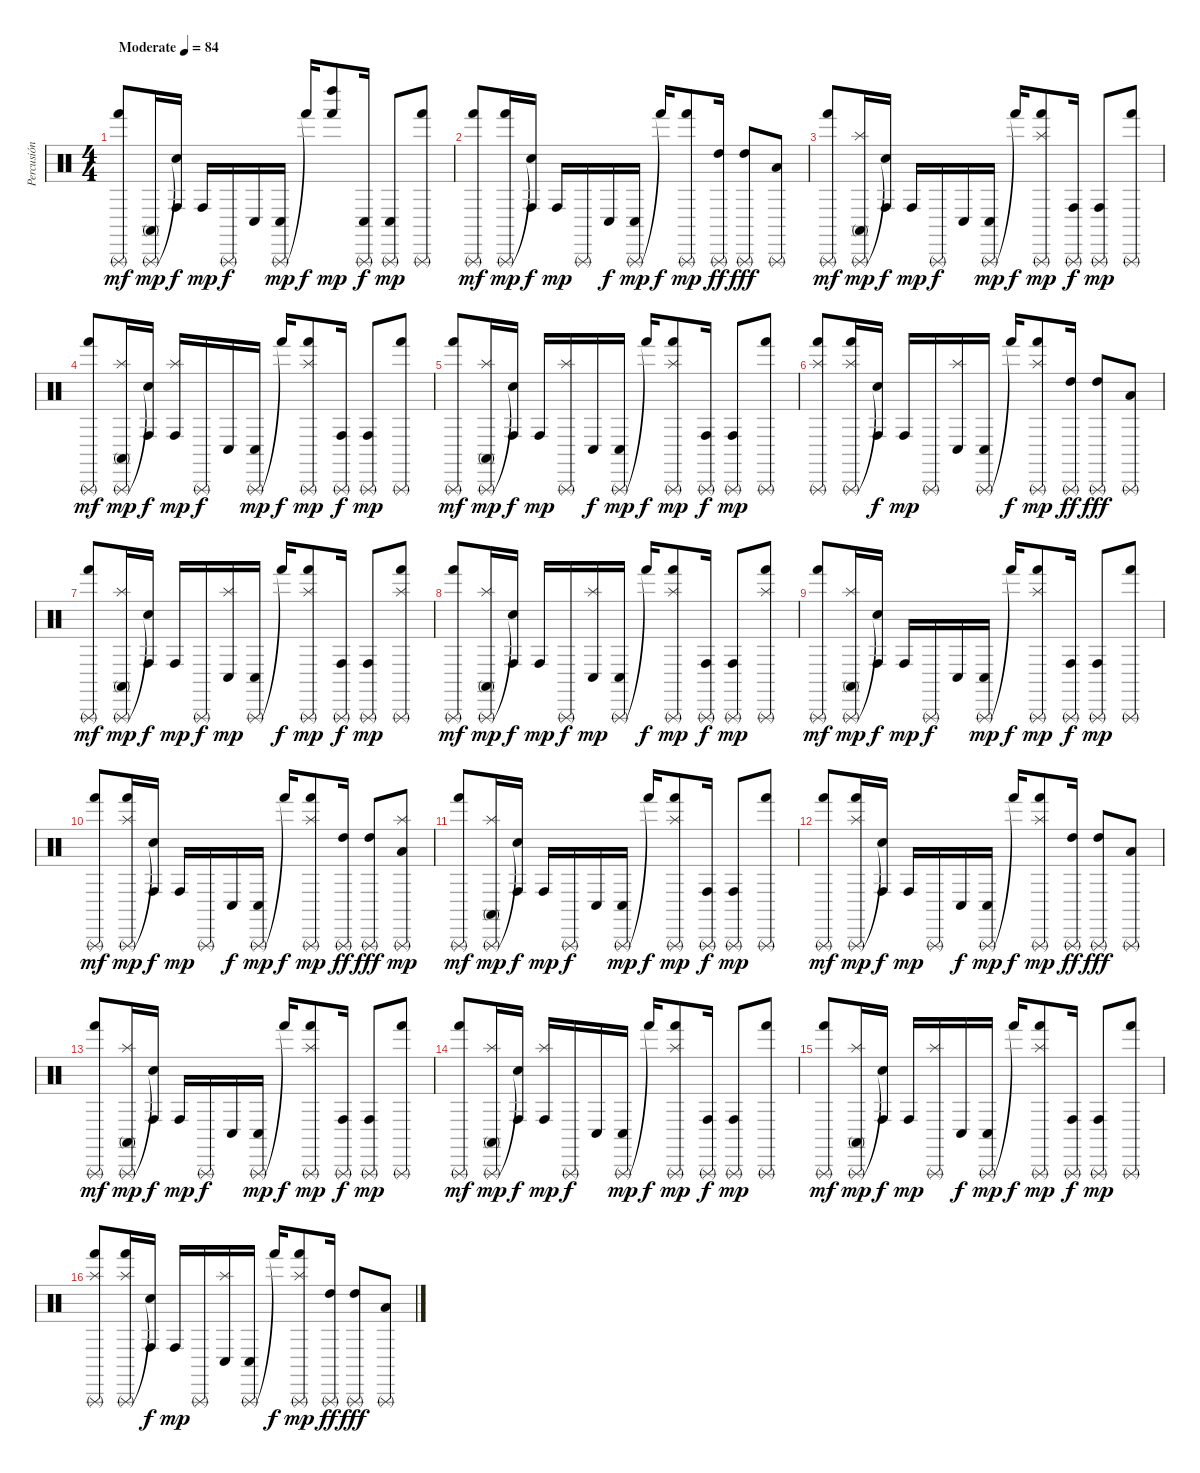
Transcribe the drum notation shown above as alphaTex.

\track ("Percusión" "Percusión") {instrument percussion}
\staff {score}
\articulation defaults
\ts (4 4)
\tempo (84 "Moderate")
\clef neutral
\ks c
("Triangle (rnute)" "Hand (hit)").8{dy mf} ("Triangle (rnute)" "Conga high (mute)").16{dy mp} ("Snare (hit)"{t} "Conga high (hit)").16{dy f} "Conga high (hit)".16{dy mp} "Triangle (rnute)".16{dy f} "Conga low (hit)".16 ("Triangle (rnute)" "Conga low (hit)").16{dy mp} "Hand (hit)"{t}.16{dy f} ("Left Maraca (hit)" "Hand (hit)").8{dy mp} ("Triangle (rnute)" "Conga low (hit)").16{dy f} ("Triangle (rnute)" "Conga low (hit)").8{dy mp} ("Triangle (rnute)" "Hand (hit)").8 |
("Triangle (rnute)" "Hand (hit)").8{dy mf} ("Triangle (rnute)" "Hand (hit)").16{dy mp} ("Snare (hit)"{t} "Conga high (hit)").16{dy f} "Conga high (hit)".16{dy mp} "Triangle (rnute)".16 "Conga low (hit)".16{dy f} ("Triangle (rnute)" "Conga low (hit)").16{dy mp} "Hand (hit)"{t}.16{dy f} ("Triangle (rnute)" "Hand (hit)").8{dy mp} ("Triangle (rnute)" "High Tom (hit)").16{dy ff} ("Triangle (rnute)" "High Tom (hit)").8{dy fff} ("Triangle (rnute)" "Low Tom (hit)").8 |
("Triangle (rnute)" "Hand (hit)").8{dy mf} ("Triangle (rnute)" "Conga high (mute)" "Splash (hit)").16{dy mp} ("Snare (hit)"{t} "Conga high (hit)").16{dy f} "Conga high (hit)".16{dy mp} "Triangle (rnute)".16{dy f} "Conga low (hit)".16 ("Triangle (rnute)" "Conga low (hit)").16{dy mp} "Hand (hit)"{t}.16{dy f} ("Triangle (rnute)" "Hand (hit)" "Splash (hit)").8{dy mp} ("Triangle (rnute)" "Conga high (hit)").16{dy f} ("Triangle (rnute)" "Conga high (hit)").8{dy mp} ("Triangle (rnute)" "Hand (hit)").8 |
("Triangle (rnute)" "Hand (hit)").8{dy mf} ("Triangle (rnute)" "Conga high (mute)" "Splash (hit)").16{dy mp} ("Snare (hit)"{t} "Conga high (hit)").16{dy f} ("Conga high (hit)" "Splash (hit)").16{dy mp} "Triangle (rnute)".16{dy f} "Conga low (hit)".16 ("Triangle (rnute)" "Conga low (hit)").16{dy mp} "Hand (hit)"{t}.16{dy f} ("Triangle (rnute)" "Hand (hit)" "Splash (hit)").8{dy mp} ("Triangle (rnute)" "Conga high (hit)").16{dy f} ("Triangle (rnute)" "Conga high (hit)").8{dy mp} ("Triangle (rnute)" "Hand (hit)").8 |
("Triangle (rnute)" "Hand (hit)").8{dy mf} ("Triangle (rnute)" "Conga high (mute)" "Splash (hit)").16{dy mp} ("Snare (hit)"{t} "Conga high (hit)").16{dy f} "Conga high (hit)".16{dy mp} ("Triangle (rnute)" "Splash (hit)").16 "Conga low (hit)".16{dy f} ("Triangle (rnute)" "Conga low (hit)").16{dy mp} "Hand (hit)"{t}.16{dy f} ("Triangle (rnute)" "Hand (hit)" "Splash (hit)").8{dy mp} ("Triangle (rnute)" "Conga high (hit)").16{dy f} ("Triangle (rnute)" "Conga high (hit)").8{dy mp} ("Triangle (rnute)" "Hand (hit)").8 |
("Triangle (rnute)" "Hand (hit)" "Splash (hit)").8 ("Triangle (rnute)" "Hand (hit)" "Splash (hit)").16 ("Snare (hit)"{t} "Conga high (hit)").16{dy f} "Conga high (hit)".16{dy mp} "Triangle (rnute)".16 ("Conga low (hit)" "Splash (hit)").16 ("Triangle (rnute)" "Conga low (hit)").16 "Hand (hit)"{t}.16{dy f} ("Triangle (rnute)" "Hand (hit)" "Splash (hit)").8{dy mp} ("Triangle (rnute)" "High Tom (hit)").16{dy ff} ("Triangle (rnute)" "High Tom (hit)").8{dy fff} ("Triangle (rnute)" "Low Tom (hit)").8 |
("Triangle (rnute)" "Hand (hit)").8{dy mf} ("Triangle (rnute)" "Conga high (mute)" "Splash (hit)").16{dy mp} ("Snare (hit)"{t} "Conga high (hit)").16{dy f} "Conga high (hit)".16{dy mp} "Triangle (rnute)".16{dy f} ("Conga low (hit)" "Splash (hit)").16{dy mp} ("Triangle (rnute)" "Conga low (hit)").16 "Hand (hit)"{t}.16{dy f} ("Triangle (rnute)" "Hand (hit)" "Splash (hit)").8{dy mp} ("Triangle (rnute)" "Conga high (hit)").16{dy f} ("Triangle (rnute)" "Conga high (hit)").8{dy mp} ("Triangle (rnute)" "Hand (hit)" "Splash (hit)").8 |
("Triangle (rnute)" "Hand (hit)").8{dy mf} ("Triangle (rnute)" "Conga high (mute)" "Splash (hit)").16{dy mp} ("Snare (hit)"{t} "Conga high (hit)").16{dy f} "Conga high (hit)".16{dy mp} "Triangle (rnute)".16{dy f} ("Conga low (hit)" "Splash (hit)").16{dy mp} ("Triangle (rnute)" "Conga low (hit)").16 "Hand (hit)"{t}.16{dy f} ("Triangle (rnute)" "Hand (hit)" "Splash (hit)").8{dy mp} ("Triangle (rnute)" "Conga high (hit)").16{dy f} ("Triangle (rnute)" "Conga high (hit)").8{dy mp} ("Triangle (rnute)" "Hand (hit)" "Splash (hit)").8 |
("Triangle (rnute)" "Hand (hit)").8{dy mf} ("Triangle (rnute)" "Conga high (mute)" "Splash (hit)").16{dy mp} ("Snare (hit)"{t} "Conga high (hit)").16{dy f} "Conga high (hit)".16{dy mp} "Triangle (rnute)".16{dy f} "Conga low (hit)".16 ("Triangle (rnute)" "Conga low (hit)").16{dy mp} "Hand (hit)"{t}.16{dy f} ("Triangle (rnute)" "Hand (hit)" "Splash (hit)").8{dy mp} ("Triangle (rnute)" "Conga high (hit)").16{dy f} ("Triangle (rnute)" "Conga high (hit)").8{dy mp} ("Triangle (rnute)" "Hand (hit)").8 |
("Triangle (rnute)" "Hand (hit)").8{dy mf} ("Triangle (rnute)" "Hand (hit)" "Splash (hit)").16{dy mp} ("Snare (hit)"{t} "Conga high (hit)").16{dy f} "Conga high (hit)".16{dy mp} "Triangle (rnute)".16 "Conga low (hit)".16{dy f} ("Triangle (rnute)" "Conga low (hit)").16{dy mp} "Hand (hit)"{t}.16{dy f} ("Triangle (rnute)" "Hand (hit)" "Splash (hit)").8{dy mp} ("Triangle (rnute)" "High Tom (hit)").16{dy ff} ("Triangle (rnute)" "High Tom (hit)").8{dy fff} ("Triangle (rnute)" "Low Tom (hit)" "Splash (hit)").8{dy mp} |
("Triangle (rnute)" "Hand (hit)").8{dy mf} ("Triangle (rnute)" "Conga high (mute)" "Splash (hit)").16{dy mp} ("Snare (hit)"{t} "Conga high (hit)").16{dy f} "Conga high (hit)".16{dy mp} "Triangle (rnute)".16{dy f} "Conga low (hit)".16 ("Triangle (rnute)" "Conga low (hit)").16{dy mp} "Hand (hit)"{t}.16{dy f} ("Triangle (rnute)" "Hand (hit)" "Splash (hit)").8{dy mp} ("Triangle (rnute)" "Conga high (hit)").16{dy f} ("Triangle (rnute)" "Conga high (hit)").8{dy mp} ("Triangle (rnute)" "Hand (hit)").8 |
("Triangle (rnute)" "Hand (hit)").8{dy mf} ("Triangle (rnute)" "Hand (hit)" "Splash (hit)").16{dy mp} ("Snare (hit)"{t} "Conga high (hit)").16{dy f} "Conga high (hit)".16{dy mp} "Triangle (rnute)".16 "Conga low (hit)".16{dy f} ("Triangle (rnute)" "Conga low (hit)").16{dy mp} "Hand (hit)"{t}.16{dy f} ("Triangle (rnute)" "Hand (hit)" "Splash (hit)").8{dy mp} ("Triangle (rnute)" "High Tom (hit)").16{dy ff} ("Triangle (rnute)" "High Tom (hit)").8{dy fff} ("Triangle (rnute)" "Low Tom (hit)").8 |
("Triangle (rnute)" "Hand (hit)").8{dy mf} ("Triangle (rnute)" "Conga high (mute)" "Splash (hit)").16{dy mp} ("Snare (hit)"{t} "Conga high (hit)").16{dy f} "Conga high (hit)".16{dy mp} "Triangle (rnute)".16{dy f} "Conga low (hit)".16 ("Triangle (rnute)" "Conga low (hit)").16{dy mp} "Hand (hit)"{t}.16{dy f} ("Triangle (rnute)" "Hand (hit)" "Splash (hit)").8{dy mp} ("Triangle (rnute)" "Conga high (hit)").16{dy f} ("Triangle (rnute)" "Conga high (hit)").8{dy mp} ("Triangle (rnute)" "Hand (hit)").8 |
("Triangle (rnute)" "Hand (hit)").8{dy mf} ("Triangle (rnute)" "Conga high (mute)" "Splash (hit)").16{dy mp} ("Snare (hit)"{t} "Conga high (hit)").16{dy f} ("Conga high (hit)" "Splash (hit)").16{dy mp} "Triangle (rnute)".16{dy f} "Conga low (hit)".16 ("Triangle (rnute)" "Conga low (hit)").16{dy mp} "Hand (hit)"{t}.16{dy f} ("Triangle (rnute)" "Hand (hit)" "Splash (hit)").8{dy mp} ("Triangle (rnute)" "Conga high (hit)").16{dy f} ("Triangle (rnute)" "Conga high (hit)").8{dy mp} ("Triangle (rnute)" "Hand (hit)").8 |
("Triangle (rnute)" "Hand (hit)").8{dy mf} ("Triangle (rnute)" "Conga high (mute)" "Splash (hit)").16{dy mp} ("Snare (hit)"{t} "Conga high (hit)").16{dy f} "Conga high (hit)".16{dy mp} ("Triangle (rnute)" "Splash (hit)").16 "Conga low (hit)".16{dy f} ("Triangle (rnute)" "Conga low (hit)").16{dy mp} "Hand (hit)"{t}.16{dy f} ("Triangle (rnute)" "Hand (hit)" "Splash (hit)").8{dy mp} ("Triangle (rnute)" "Conga high (hit)").16{dy f} ("Triangle (rnute)" "Conga high (hit)").8{dy mp} ("Triangle (rnute)" "Hand (hit)").8 |
("Triangle (rnute)" "Hand (hit)" "Splash (hit)").8 ("Triangle (rnute)" "Hand (hit)" "Splash (hit)").16 ("Snare (hit)"{t} "Conga high (hit)").16{dy f} "Conga high (hit)".16{dy mp} "Triangle (rnute)".16 ("Conga low (hit)" "Splash (hit)").16 ("Triangle (rnute)" "Conga low (hit)").16 "Hand (hit)"{t}.16{dy f} ("Triangle (rnute)" "Hand (hit)" "Splash (hit)").8{dy mp} ("Triangle (rnute)" "High Tom (hit)").16{dy ff} ("Triangle (rnute)" "High Tom (hit)").8{dy fff} ("Triangle (rnute)" "Low Tom (hit)").8
